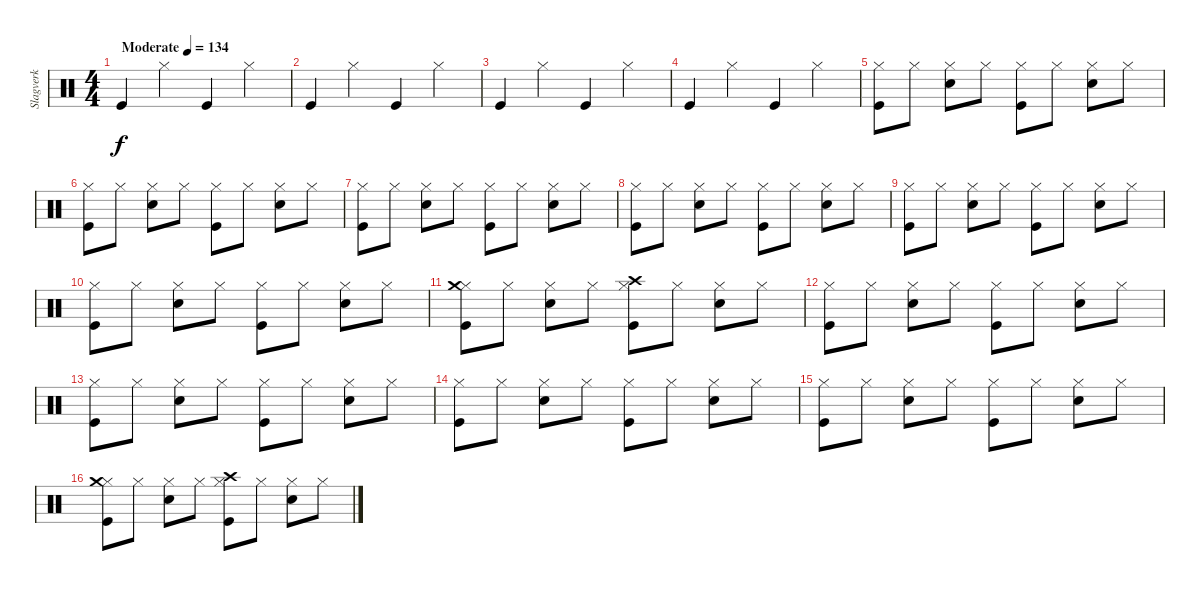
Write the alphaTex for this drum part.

\track ("Slagverk" "Slagverk") {instrument percussion}
\staff
\articulation defaults
\ts (4 4)
\tempo (134 "Moderate")
\clef neutral
\ks c "Kick (hit)".4{dy f} "Hi-Hat (closed)".4 "Kick (hit)".4 "Hi-Hat (closed)".4
|
"Kick (hit)".4 "Hi-Hat (closed)".4 "Kick (hit)".4 "Hi-Hat (closed)".4 |
"Kick (hit)".4 "Hi-Hat (closed)".4 "Kick (hit)".4 "Hi-Hat (closed)".4 |
"Kick (hit)".4 "Hi-Hat (closed)".4 "Kick (hit)".4 "Hi-Hat (closed)".4 |
("Hi-Hat (closed)" "Kick (hit)").8 "Hi-Hat (closed)".8 ("Hi-Hat (closed)" "Electric Snare (hit)").8 "Hi-Hat (closed)".8 ("Hi-Hat (closed)" "Kick (hit)").8 "Hi-Hat (closed)".8 ("Hi-Hat (closed)" "Electric Snare (hit)").8 "Hi-Hat (closed)".8 |
("Hi-Hat (closed)" "Kick (hit)").8 "Hi-Hat (closed)".8 ("Hi-Hat (closed)" "Electric Snare (hit)").8 "Hi-Hat (closed)".8 ("Hi-Hat (closed)" "Kick (hit)").8 "Hi-Hat (closed)".8 ("Hi-Hat (closed)" "Electric Snare (hit)").8 "Hi-Hat (closed)".8 |
("Hi-Hat (closed)" "Kick (hit)").8 "Hi-Hat (closed)".8 ("Hi-Hat (closed)" "Electric Snare (hit)").8 "Hi-Hat (closed)".8 ("Hi-Hat (closed)" "Kick (hit)").8 "Hi-Hat (closed)".8 ("Hi-Hat (closed)" "Electric Snare (hit)").8 "Hi-Hat (closed)".8 |
("Hi-Hat (closed)" "Kick (hit)").8 "Hi-Hat (closed)".8 ("Hi-Hat (closed)" "Electric Snare (hit)").8 "Hi-Hat (closed)".8 ("Hi-Hat (closed)" "Kick (hit)").8 "Hi-Hat (closed)".8 ("Hi-Hat (closed)" "Electric Snare (hit)").8 "Hi-Hat (closed)".8 |
("Hi-Hat (closed)" "Kick (hit)").8 "Hi-Hat (closed)".8 ("Hi-Hat (closed)" "Electric Snare (hit)").8 "Hi-Hat (closed)".8 ("Hi-Hat (closed)" "Kick (hit)").8 "Hi-Hat (closed)".8 ("Hi-Hat (closed)" "Electric Snare (hit)").8 "Hi-Hat (closed)".8 |
("Hi-Hat (closed)" "Kick (hit)").8 "Hi-Hat (closed)".8 ("Hi-Hat (closed)" "Electric Snare (hit)").8 "Hi-Hat (closed)".8 ("Hi-Hat (closed)" "Kick (hit)").8 "Hi-Hat (closed)".8 ("Hi-Hat (closed)" "Electric Snare (hit)").8 "Hi-Hat (closed)".8 |
("Hi-Hat (closed)" "Crash medium (hit)" "Kick (hit)").8 "Hi-Hat (closed)".8 ("Hi-Hat (closed)" "Electric Snare (hit)").8 "Hi-Hat (closed)".8 ("Hi-Hat (closed)" "Crash high (hit)" "Kick (hit)").8 "Hi-Hat (closed)".8 ("Hi-Hat (closed)" "Electric Snare (hit)").8 "Hi-Hat (closed)".8 |
("Hi-Hat (closed)" "Kick (hit)").8 "Hi-Hat (closed)".8 ("Hi-Hat (closed)" "Electric Snare (hit)").8 "Hi-Hat (closed)".8 ("Hi-Hat (closed)" "Kick (hit)").8 "Hi-Hat (closed)".8 ("Hi-Hat (closed)" "Electric Snare (hit)").8 "Hi-Hat (closed)".8 |
("Hi-Hat (closed)" "Kick (hit)").8 "Hi-Hat (closed)".8 ("Hi-Hat (closed)" "Electric Snare (hit)").8 "Hi-Hat (closed)".8 ("Hi-Hat (closed)" "Kick (hit)").8 "Hi-Hat (closed)".8 ("Hi-Hat (closed)" "Electric Snare (hit)").8 "Hi-Hat (closed)".8 |
("Hi-Hat (closed)" "Kick (hit)").8 "Hi-Hat (closed)".8 ("Hi-Hat (closed)" "Electric Snare (hit)").8 "Hi-Hat (closed)".8 ("Hi-Hat (closed)" "Kick (hit)").8 "Hi-Hat (closed)".8 ("Hi-Hat (closed)" "Electric Snare (hit)").8 "Hi-Hat (closed)".8 |
("Hi-Hat (closed)" "Kick (hit)").8 "Hi-Hat (closed)".8 ("Hi-Hat (closed)" "Electric Snare (hit)").8 "Hi-Hat (closed)".8 ("Hi-Hat (closed)" "Kick (hit)").8 "Hi-Hat (closed)".8 ("Hi-Hat (closed)" "Electric Snare (hit)").8 "Hi-Hat (closed)".8 |
("Hi-Hat (closed)" "Crash medium (hit)" "Kick (hit)").8 "Hi-Hat (closed)".8 ("Hi-Hat (closed)" "Electric Snare (hit)").8 "Hi-Hat (closed)".8 ("Hi-Hat (closed)" "Crash high (hit)" "Kick (hit)").8 "Hi-Hat (closed)".8 ("Hi-Hat (closed)" "Electric Snare (hit)").8 "Hi-Hat (closed)".8
